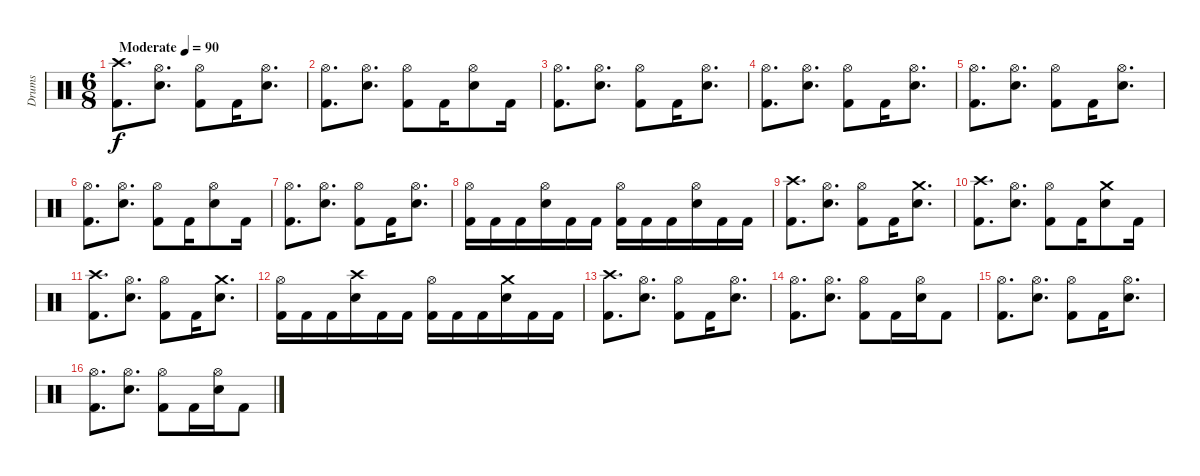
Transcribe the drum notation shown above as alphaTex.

\track ("Drums" "Drums") {instrument percussion}
\staff {score}
\articulation defaults
\ts (6 8)
\tempo (90 "Moderate")
\clef neutral
\ks c
("Kick (hit) 2" "Crash high (hit)").8{d dy f} ("Electric Snare (hit)" "Hi-Hat (open)").8{d} ("Kick (hit) 2" "Hi-Hat (open)").8 "Kick (hit) 2".16 ("Electric Snare (hit)" "Hi-Hat (open)").8{d} |
("Kick (hit) 2" "Hi-Hat (open)").8{d} ("Electric Snare (hit)" "Hi-Hat (open)").8{d} ("Kick (hit) 2" "Hi-Hat (open)").8 "Kick (hit) 2".16 ("Electric Snare (hit)" "Hi-Hat (open)").8 "Kick (hit) 2".16 |
("Kick (hit) 2" "Hi-Hat (open)").8{d} ("Electric Snare (hit)" "Hi-Hat (open)").8{d} ("Kick (hit) 2" "Hi-Hat (open)").8 "Kick (hit) 2".16 ("Electric Snare (hit)" "Hi-Hat (open)").8{d} |
("Kick (hit) 2" "Hi-Hat (open)").8{d} ("Electric Snare (hit)" "Hi-Hat (open)").8{d} ("Kick (hit) 2" "Hi-Hat (open)").8 "Kick (hit) 2".16 ("Electric Snare (hit)" "Hi-Hat (open)").8{d} |
("Kick (hit) 2" "Hi-Hat (open)").8{d} ("Electric Snare (hit)" "Hi-Hat (open)").8{d} ("Kick (hit) 2" "Hi-Hat (open)").8 "Kick (hit) 2".16 ("Electric Snare (hit)" "Hi-Hat (open)").8{d} |
("Kick (hit) 2" "Hi-Hat (open)").8{d} ("Electric Snare (hit)" "Hi-Hat (open)").8{d} ("Kick (hit) 2" "Hi-Hat (open)").8 "Kick (hit) 2".16 ("Electric Snare (hit)" "Hi-Hat (open)").8 "Kick (hit) 2".16 |
("Kick (hit) 2" "Hi-Hat (open)").8{d} ("Electric Snare (hit)" "Hi-Hat (open)").8{d} ("Kick (hit) 2" "Hi-Hat (open)").8 "Kick (hit) 2".16 ("Electric Snare (hit)" "Hi-Hat (open)").8{d} |
("Kick (hit) 2" "Hi-Hat (open)").16 "Kick (hit) 2".16 "Kick (hit) 2".16 ("Electric Snare (hit)" "Hi-Hat (open)").16 "Kick (hit) 2".16 "Kick (hit) 2".16 ("Kick (hit) 2" "Hi-Hat (open)").16 "Kick (hit) 2".16 "Kick (hit) 2".16 ("Electric Snare (hit)" "Hi-Hat (open)").16 "Kick (hit) 2".16 "Kick (hit) 2".16 |
("Kick (hit) 2" "Crash high (hit)").8{d} ("Electric Snare (hit)" "Hi-Hat (open)").8{d} ("Kick (hit) 2" "Hi-Hat (open)").8 "Kick (hit) 2".16 ("Electric Snare (hit)" "Crash medium (hit)").8{d} |
("Kick (hit) 2" "Crash high (hit)").8{d} ("Electric Snare (hit)" "Hi-Hat (open)").8{d} ("Kick (hit) 2" "Hi-Hat (open)").8 "Kick (hit) 2".16 ("Electric Snare (hit)" "Crash medium (hit)").8 "Kick (hit) 2".16 |
("Kick (hit) 2" "Crash high (hit)").8{d} ("Electric Snare (hit)" "Hi-Hat (open)").8{d} ("Kick (hit) 2" "Hi-Hat (open)").8 "Kick (hit) 2".16 ("Electric Snare (hit)" "Crash medium (hit)").8{d} |
("Kick (hit) 2" "Hi-Hat (open)").16 "Kick (hit) 2".16 "Kick (hit) 2".16 ("Electric Snare (hit)" "Crash high (hit)").16 "Kick (hit) 2".16 "Kick (hit) 2".16 ("Kick (hit) 2" "Hi-Hat (open)").16 "Kick (hit) 2".16 "Kick (hit) 2".16 ("Electric Snare (hit)" "Crash medium (hit)").16 "Kick (hit) 2".16 "Kick (hit) 2".16 |
("Kick (hit) 2" "Crash high (hit)").8{d} ("Electric Snare (hit)" "Hi-Hat (open)").8{d} ("Kick (hit) 2" "Hi-Hat (open)").8 "Kick (hit) 2".16 ("Electric Snare (hit)" "Hi-Hat (open)").8{d} |
("Kick (hit) 2" "Hi-Hat (open)").8{d} ("Electric Snare (hit)" "Hi-Hat (open)").8{d} ("Kick (hit) 2" "Hi-Hat (open)").8 "Kick (hit) 2".16 ("Electric Snare (hit)" "Hi-Hat (open)").16 "Kick (hit) 2".8 |
("Kick (hit) 2" "Hi-Hat (open)").8{d} ("Electric Snare (hit)" "Hi-Hat (open)").8{d} ("Kick (hit) 2" "Hi-Hat (open)").8 "Kick (hit) 2".16 ("Electric Snare (hit)" "Hi-Hat (open)").8{d} |
("Kick (hit) 2" "Hi-Hat (open)").8{d} ("Electric Snare (hit)" "Hi-Hat (open)").8{d} ("Kick (hit) 2" "Hi-Hat (open)").8 "Kick (hit) 2".16 ("Electric Snare (hit)" "Hi-Hat (open)").16 "Kick (hit) 2".8
